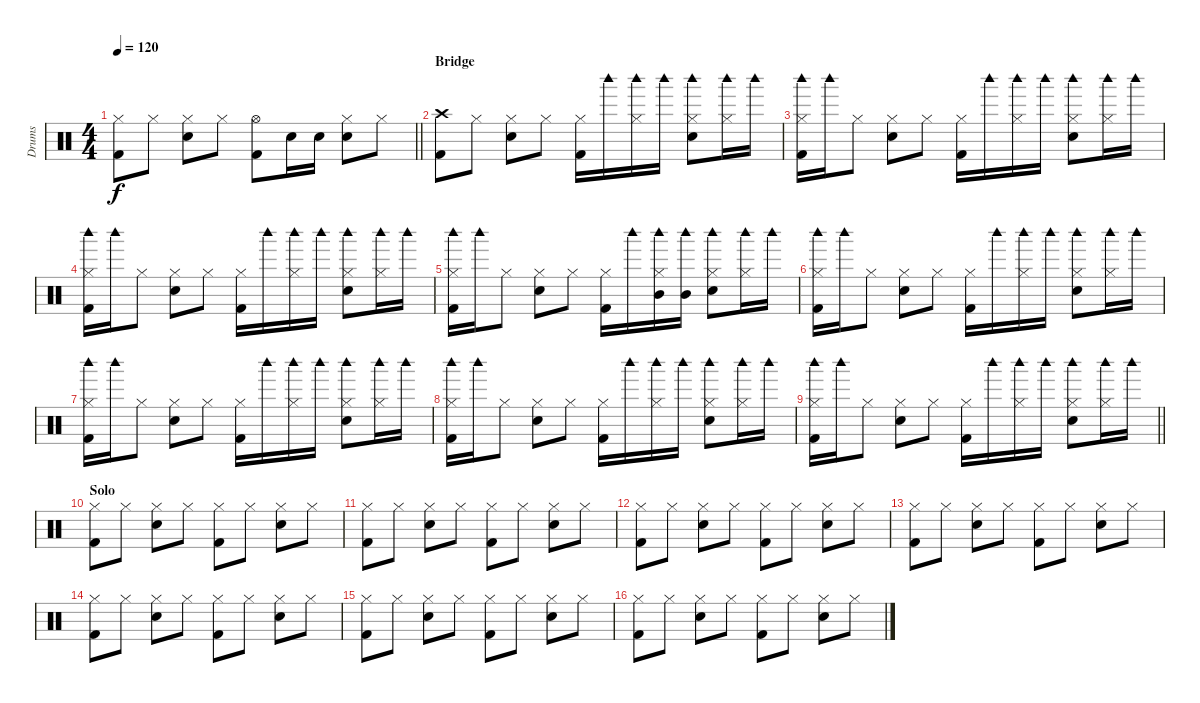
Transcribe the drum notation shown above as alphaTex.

\track ("Drums" "Drums") {instrument percussion}
\staff {score}
\articulation defaults
\ts (4 4)
\tempo 120
\clef neutral
\barLineRight lightlight
\ks c
("Hi-Hat (closed)" "Kick (hit) 2").8{dy f} "Hi-Hat (closed)".8 ("Hi-Hat (closed)" "Snare (hit) 2").8 "Hi-Hat (closed)".8 ("Hi-Hat (open)" "Kick (hit) 2").8 "Snare (hit) 2".16 "Snare (hit) 2".16 ("Hi-Hat (closed)" "Snare (hit) 2").8 "Hi-Hat (closed)".8 |
\section ("" "Bridge")
("Crash high (hit)" "Kick (hit) 2").8 "Hi-Hat (closed)".8 ("Hi-Hat (closed)" "Snare (hit) 2").8 "Hi-Hat (closed)".8 ("Hi-Hat (closed)" "Kick (hit) 2").16 "Woodblock high (hit)".16 ("Hi-Hat (closed)" "Woodblock high (hit)").16 "Woodblock high (hit)".16 ("Hi-Hat (closed)" "Woodblock high (hit)" "Snare (hit) 2").8 ("Hi-Hat (closed)" "Woodblock high (hit)").16 "Woodblock high (hit)".16 |
("Hi-Hat (closed)" "Woodblock high (hit)" "Kick (hit) 2").16 "Woodblock high (hit)".16 "Hi-Hat (closed)".8 ("Hi-Hat (closed)" "Snare (hit) 2").8 "Hi-Hat (closed)".8 ("Hi-Hat (closed)" "Kick (hit) 2").16 "Woodblock high (hit)".16 ("Hi-Hat (closed)" "Woodblock high (hit)").16 "Woodblock high (hit)".16 ("Hi-Hat (closed)" "Woodblock high (hit)" "Snare (hit) 2").8 ("Hi-Hat (closed)" "Woodblock high (hit)").16 "Woodblock high (hit)".16 |
("Hi-Hat (closed)" "Woodblock high (hit)" "Kick (hit) 2").16 "Woodblock high (hit)".16 "Hi-Hat (closed)".8 ("Hi-Hat (closed)" "Snare (hit) 2").8 "Hi-Hat (closed)".8 ("Hi-Hat (closed)" "Kick (hit) 2").16 "Woodblock high (hit)".16 ("Hi-Hat (closed)" "Woodblock high (hit)").16 "Woodblock high (hit)".16 ("Hi-Hat (closed)" "Woodblock high (hit)" "Snare (hit) 2").8 ("Hi-Hat (closed)" "Woodblock high (hit)").16 "Woodblock high (hit)".16 |
("Hi-Hat (closed)" "Woodblock high (hit)" "Kick (hit) 2").16 "Woodblock high (hit)".16 "Hi-Hat (closed)".8 ("Hi-Hat (closed)" "Snare (hit) 2").8 "Hi-Hat (closed)".8 ("Hi-Hat (closed)" "Kick (hit) 2").16 "Woodblock high (hit)".16 ("Hi-Hat (closed)" "Woodblock high (hit)" "Mid Tom (hit)").16 ("Woodblock high (hit)" "Mid Tom (hit)").16 ("Hi-Hat (closed)" "Woodblock high (hit)" "Snare (hit) 2").8 ("Hi-Hat (closed)" "Woodblock high (hit)").16 "Woodblock high (hit)".16 |
("Hi-Hat (closed)" "Woodblock high (hit)" "Kick (hit) 2").16 "Woodblock high (hit)".16 "Hi-Hat (closed)".8 ("Hi-Hat (closed)" "Snare (hit) 2").8 "Hi-Hat (closed)".8 ("Hi-Hat (closed)" "Kick (hit) 2").16 "Woodblock high (hit)".16 ("Hi-Hat (closed)" "Woodblock high (hit)").16 "Woodblock high (hit)".16 ("Hi-Hat (closed)" "Woodblock high (hit)" "Snare (hit) 2").8 ("Hi-Hat (closed)" "Woodblock high (hit)").16 "Woodblock high (hit)".16 |
("Hi-Hat (closed)" "Woodblock high (hit)" "Kick (hit) 2").16 "Woodblock high (hit)".16 "Hi-Hat (closed)".8 ("Hi-Hat (closed)" "Snare (hit) 2").8 "Hi-Hat (closed)".8 ("Hi-Hat (closed)" "Kick (hit) 2").16 "Woodblock high (hit)".16 ("Hi-Hat (closed)" "Woodblock high (hit)").16 "Woodblock high (hit)".16 ("Hi-Hat (closed)" "Woodblock high (hit)" "Snare (hit) 2").8 ("Hi-Hat (closed)" "Woodblock high (hit)").16 "Woodblock high (hit)".16 |
("Hi-Hat (closed)" "Woodblock high (hit)" "Kick (hit) 2").16 "Woodblock high (hit)".16 "Hi-Hat (closed)".8 ("Hi-Hat (closed)" "Snare (hit) 2").8 "Hi-Hat (closed)".8 ("Hi-Hat (closed)" "Kick (hit) 2").16 "Woodblock high (hit)".16 ("Hi-Hat (closed)" "Woodblock high (hit)").16 "Woodblock high (hit)".16 ("Hi-Hat (closed)" "Woodblock high (hit)" "Snare (hit) 2").8 ("Hi-Hat (closed)" "Woodblock high (hit)").16 "Woodblock high (hit)".16 |
\barLineRight lightlight
("Hi-Hat (closed)" "Woodblock high (hit)" "Kick (hit) 2").16 "Woodblock high (hit)".16 "Hi-Hat (closed)".8 ("Hi-Hat (closed)" "Snare (hit) 2").8 "Hi-Hat (closed)".8 ("Hi-Hat (closed)" "Kick (hit) 2").16 "Woodblock high (hit)".16 ("Hi-Hat (closed)" "Woodblock high (hit)").16 "Woodblock high (hit)".16 ("Hi-Hat (closed)" "Woodblock high (hit)" "Snare (hit) 2").8 ("Hi-Hat (closed)" "Woodblock high (hit)").16 "Woodblock high (hit)".16 |
\section ("" "Solo")
("Hi-Hat (closed)" "Kick (hit) 2").8 "Hi-Hat (closed)".8 ("Hi-Hat (closed)" "Snare (hit) 2").8 "Hi-Hat (closed)".8 ("Hi-Hat (closed)" "Kick (hit) 2").8 "Hi-Hat (closed)".8 ("Hi-Hat (closed)" "Snare (hit) 2").8 "Hi-Hat (closed)".8 |
("Hi-Hat (closed)" "Kick (hit) 2").8 "Hi-Hat (closed)".8 ("Hi-Hat (closed)" "Snare (hit) 2").8 "Hi-Hat (closed)".8 ("Hi-Hat (closed)" "Kick (hit) 2").8 "Hi-Hat (closed)".8 ("Hi-Hat (closed)" "Snare (hit) 2").8 "Hi-Hat (closed)".8 |
("Hi-Hat (closed)" "Kick (hit) 2").8 "Hi-Hat (closed)".8 ("Hi-Hat (closed)" "Snare (hit) 2").8 "Hi-Hat (closed)".8 ("Hi-Hat (closed)" "Kick (hit) 2").8 "Hi-Hat (closed)".8 ("Hi-Hat (closed)" "Snare (hit) 2").8 "Hi-Hat (closed)".8 |
("Hi-Hat (closed)" "Kick (hit) 2").8 "Hi-Hat (closed)".8 ("Hi-Hat (closed)" "Snare (hit) 2").8 "Hi-Hat (closed)".8 ("Hi-Hat (closed)" "Kick (hit) 2").8 "Hi-Hat (closed)".8 ("Hi-Hat (closed)" "Snare (hit) 2").8 "Hi-Hat (closed)".8 |
("Hi-Hat (closed)" "Kick (hit) 2").8 "Hi-Hat (closed)".8 ("Hi-Hat (closed)" "Snare (hit) 2").8 "Hi-Hat (closed)".8 ("Hi-Hat (closed)" "Kick (hit) 2").8 "Hi-Hat (closed)".8 ("Hi-Hat (closed)" "Snare (hit) 2").8 "Hi-Hat (closed)".8 |
("Hi-Hat (closed)" "Kick (hit) 2").8 "Hi-Hat (closed)".8 ("Hi-Hat (closed)" "Snare (hit) 2").8 "Hi-Hat (closed)".8 ("Hi-Hat (closed)" "Kick (hit) 2").8 "Hi-Hat (closed)".8 ("Hi-Hat (closed)" "Snare (hit) 2").8 "Hi-Hat (closed)".8 |
("Hi-Hat (closed)" "Kick (hit) 2").8 "Hi-Hat (closed)".8 ("Hi-Hat (closed)" "Snare (hit) 2").8 "Hi-Hat (closed)".8 ("Hi-Hat (closed)" "Kick (hit) 2").8 "Hi-Hat (closed)".8 ("Hi-Hat (closed)" "Snare (hit) 2").8 "Hi-Hat (closed)".8
